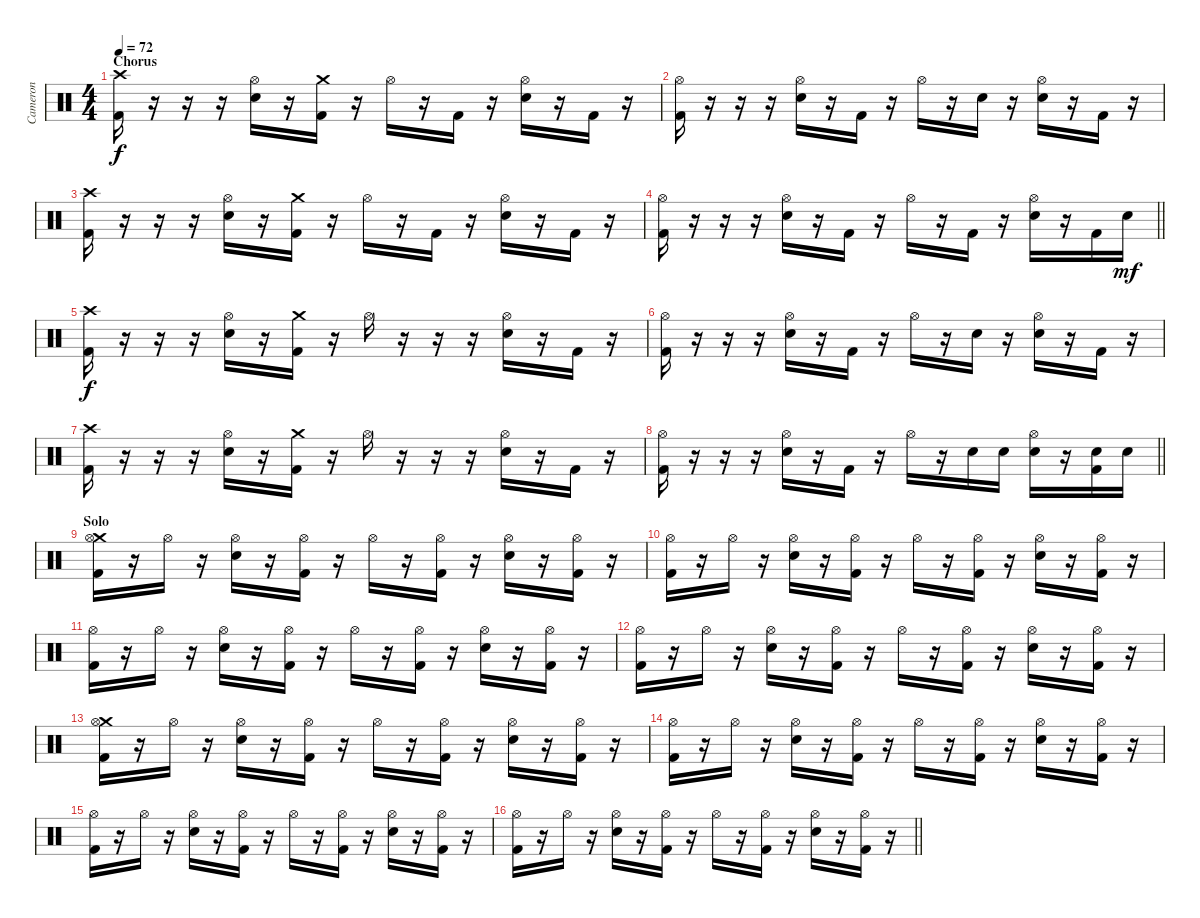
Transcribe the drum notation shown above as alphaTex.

\track ("Cameron" "Cameron") {instrument percussion}
\staff {score}
\articulation defaults
\ts (4 4)
\section ("" "Chorus")
\tempo 72
\clef neutral
\ks c
("Crash high (hit)" "Kick (hit) 2").16{dy f} r.16 r.16 r.16 ("Hi-Hat (open)" "Electric Snare (hit)").16 r.16 ("Crash medium (hit)" "Kick (hit) 2").16 r.16 "Hi-Hat (open)".16 r.16 "Kick (hit) 2".16 r.16 ("Hi-Hat (open)" "Electric Snare (hit)").16 r.16 "Kick (hit) 2".16 r.16 |
("Hi-Hat (open)" "Kick (hit) 2").16 r.16 r.16 r.16 ("Hi-Hat (open)" "Electric Snare (hit)").16 r.16 "Kick (hit) 2".16 r.16 "Hi-Hat (open)".16 r.16 "Electric Snare (hit)".16 r.16 ("Hi-Hat (open)" "Electric Snare (hit)").16 r.16 "Kick (hit) 2".16 r.16 |
("Crash high (hit)" "Kick (hit) 2").16 r.16 r.16 r.16 ("Hi-Hat (open)" "Electric Snare (hit)").16 r.16 ("Crash medium (hit)" "Kick (hit) 2").16 r.16 "Hi-Hat (open)".16 r.16 "Kick (hit) 2".16 r.16 ("Hi-Hat (open)" "Electric Snare (hit)").16 r.16 "Kick (hit) 2".16 r.16 |
\barLineRight lightlight
("Hi-Hat (open)" "Kick (hit) 2").16 r.16 r.16 r.16 ("Hi-Hat (open)" "Electric Snare (hit)").16 r.16 "Kick (hit) 2".16 r.16 "Hi-Hat (open)".16 r.16 "Kick (hit) 2".16 r.16 ("Hi-Hat (open)" "Electric Snare (hit)").16 r.16 "Kick (hit) 2".16 "Electric Snare (hit)".16{dy mf} |
("Crash high (hit)" "Kick (hit) 2").16{dy f} r.16 r.16 r.16 ("Hi-Hat (open)" "Electric Snare (hit)").16 r.16 ("Crash medium (hit)" "Kick (hit) 2").16 r.16 "Hi-Hat (open)".16 r.16 r.16 r.16 ("Hi-Hat (open)" "Electric Snare (hit)").16 r.16 "Kick (hit) 2".16 r.16 |
("Hi-Hat (open)" "Kick (hit) 2").16 r.16 r.16 r.16 ("Hi-Hat (open)" "Electric Snare (hit)").16 r.16 "Kick (hit) 2".16 r.16 "Hi-Hat (open)".16 r.16 "Electric Snare (hit)".16 r.16 ("Hi-Hat (open)" "Electric Snare (hit)").16 r.16 "Kick (hit) 2".16 r.16 |
("Crash high (hit)" "Kick (hit) 2").16 r.16 r.16 r.16 ("Hi-Hat (open)" "Electric Snare (hit)").16 r.16 ("Crash medium (hit)" "Kick (hit) 2").16 r.16 "Hi-Hat (open)".16 r.16 r.16 r.16 ("Hi-Hat (open)" "Electric Snare (hit)").16 r.16 "Kick (hit) 2".16 r.16 |
\barLineRight lightlight
("Hi-Hat (open)" "Kick (hit) 2").16 r.16 r.16 r.16 ("Hi-Hat (open)" "Electric Snare (hit)").16 r.16 "Kick (hit) 2".16 r.16 "Hi-Hat (open)".16 r.16 "Electric Snare (hit)".16 "Electric Snare (hit)".16 ("Hi-Hat (open)" "Electric Snare (hit)").16 r.16 ("Electric Snare (hit)" "Kick (hit) 2").16 "Electric Snare (hit)".16 |
\section ("" "Solo")
("Crash medium (hit)" "Hi-Hat (open)" "Kick (hit) 2").16 r.16 "Hi-Hat (open)".16 r.16 ("Hi-Hat (open)" "Electric Snare (hit)").16 r.16 ("Hi-Hat (open)" "Kick (hit) 2").16 r.16 "Hi-Hat (open)".16 r.16 ("Hi-Hat (open)" "Kick (hit) 2").16 r.16 ("Hi-Hat (open)" "Electric Snare (hit)").16 r.16 ("Hi-Hat (open)" "Kick (hit) 2").16 r.16 |
("Hi-Hat (open)" "Kick (hit) 2").16 r.16 "Hi-Hat (open)".16 r.16 ("Hi-Hat (open)" "Electric Snare (hit)").16 r.16 ("Hi-Hat (open)" "Kick (hit) 2").16 r.16 "Hi-Hat (open)".16 r.16 ("Hi-Hat (open)" "Kick (hit) 2").16 r.16 ("Hi-Hat (open)" "Electric Snare (hit)").16 r.16 ("Hi-Hat (open)" "Kick (hit) 2").16 r.16 |
("Hi-Hat (open)" "Kick (hit) 2").16 r.16 "Hi-Hat (open)".16 r.16 ("Hi-Hat (open)" "Electric Snare (hit)").16 r.16 ("Hi-Hat (open)" "Kick (hit) 2").16 r.16 "Hi-Hat (open)".16 r.16 ("Hi-Hat (open)" "Kick (hit) 2").16 r.16 ("Hi-Hat (open)" "Electric Snare (hit)").16 r.16 ("Hi-Hat (open)" "Kick (hit) 2").16 r.16 |
("Hi-Hat (open)" "Kick (hit) 2").16 r.16 "Hi-Hat (open)".16 r.16 ("Hi-Hat (open)" "Electric Snare (hit)").16 r.16 ("Hi-Hat (open)" "Kick (hit) 2").16 r.16 "Hi-Hat (open)".16 r.16 ("Hi-Hat (open)" "Kick (hit) 2").16 r.16 ("Hi-Hat (open)" "Electric Snare (hit)").16 r.16 ("Hi-Hat (open)" "Kick (hit) 2").16 r.16 |
("Crash medium (hit)" "Hi-Hat (open)" "Kick (hit) 2").16 r.16 "Hi-Hat (open)".16 r.16 ("Hi-Hat (open)" "Electric Snare (hit)").16 r.16 ("Hi-Hat (open)" "Kick (hit) 2").16 r.16 "Hi-Hat (open)".16 r.16 ("Hi-Hat (open)" "Kick (hit) 2").16 r.16 ("Hi-Hat (open)" "Electric Snare (hit)").16 r.16 ("Hi-Hat (open)" "Kick (hit) 2").16 r.16 |
("Hi-Hat (open)" "Kick (hit) 2").16 r.16 "Hi-Hat (open)".16 r.16 ("Hi-Hat (open)" "Electric Snare (hit)").16 r.16 ("Hi-Hat (open)" "Kick (hit) 2").16 r.16 "Hi-Hat (open)".16 r.16 ("Hi-Hat (open)" "Kick (hit) 2").16 r.16 ("Hi-Hat (open)" "Electric Snare (hit)").16 r.16 ("Hi-Hat (open)" "Kick (hit) 2").16 r.16 |
("Hi-Hat (open)" "Kick (hit) 2").16 r.16 "Hi-Hat (open)".16 r.16 ("Hi-Hat (open)" "Electric Snare (hit)").16 r.16 ("Hi-Hat (open)" "Kick (hit) 2").16 r.16 "Hi-Hat (open)".16 r.16 ("Hi-Hat (open)" "Kick (hit) 2").16 r.16 ("Hi-Hat (open)" "Electric Snare (hit)").16 r.16 ("Hi-Hat (open)" "Kick (hit) 2").16 r.16 |
\barLineRight lightlight
("Hi-Hat (open)" "Kick (hit) 2").16 r.16 "Hi-Hat (open)".16 r.16 ("Hi-Hat (open)" "Electric Snare (hit)").16 r.16 ("Hi-Hat (open)" "Kick (hit) 2").16 r.16 "Hi-Hat (open)".16 r.16 ("Hi-Hat (open)" "Kick (hit) 2").16 r.16 ("Hi-Hat (open)" "Electric Snare (hit)").16 r.16 ("Hi-Hat (open)" "Kick (hit) 2").16 r.16
